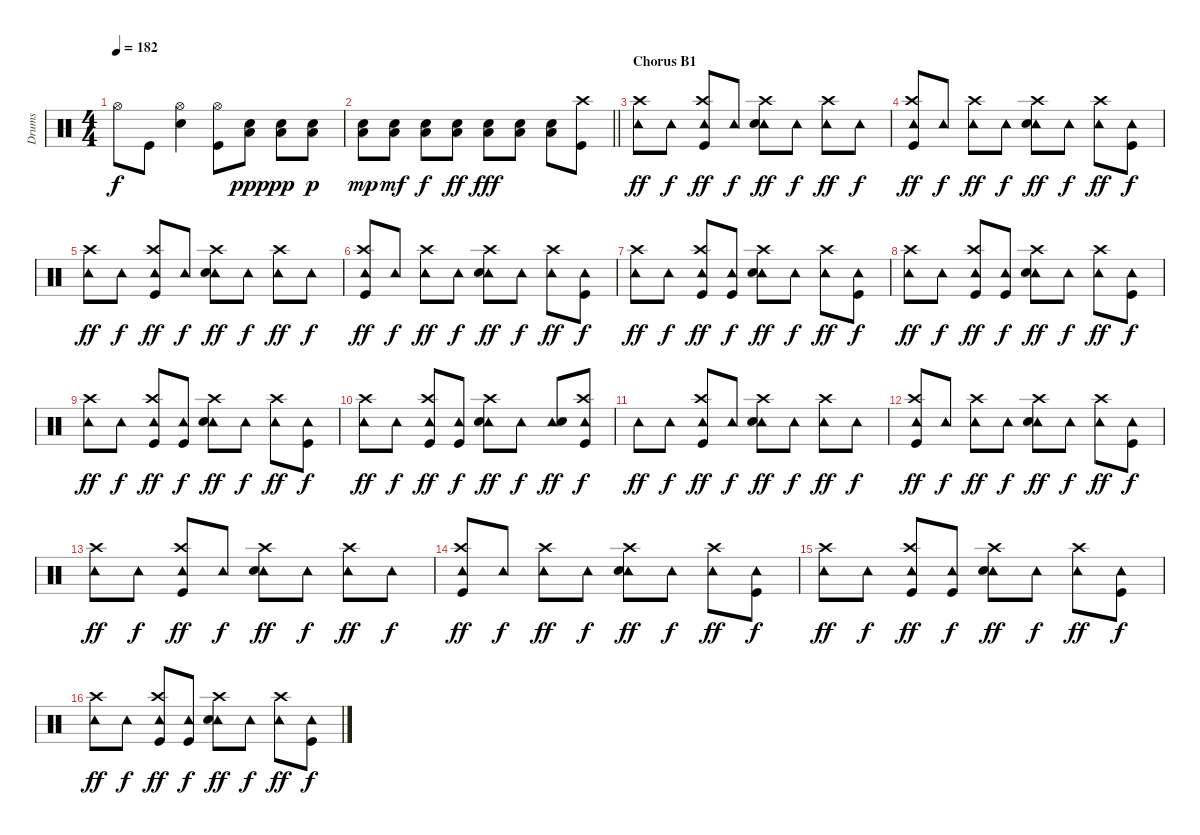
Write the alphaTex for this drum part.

\track ("Drums" "Drums") {instrument percussion}
\staff {score}
\articulation defaults
\ts (4 4)
\tempo 182
\clef neutral
\ks c "Hi-Hat (open)".8{dy f} "Kick (hit)".8
("Hi-Hat (open)" "Electric Snare (hit)").4 ("Hi-Hat (open)" "Kick (hit)").8 ("Low Floor Tom (hit)" "Electric Snare (hit)").8{dy ppp} ("Low Floor Tom (hit)" "Electric Snare (hit)").8{dy pp} ("Low Floor Tom (hit)" "Electric Snare (hit)").8{dy p} |
\barLineRight lightlight
("Low Floor Tom (hit)" "Electric Snare (hit)").8{dy mp} ("Low Floor Tom (hit)" "Electric Snare (hit)").8{dy mf} ("Low Floor Tom (hit)" "Electric Snare (hit)").8{dy f} ("Low Floor Tom (hit)" "Electric Snare (hit)").8{dy ff} ("Low Floor Tom (hit)" "Electric Snare (hit)").8{dy fff} ("Low Floor Tom (hit)" "Electric Snare (hit)").8 ("Low Floor Tom (hit)" "Electric Snare (hit)").8 ("Crash high (hit)" "Kick (hit)").8 |
\section ("" "Chorus B1")
("Tambourine (hit)" "Crash high (hit)").8{dy ff} "Tambourine (hit)".8{dy f} ("Tambourine (hit)" "Crash high (hit)" "Kick (hit)").8{dy ff} "Tambourine (hit)".8{dy f} ("Tambourine (hit)" "Crash high (hit)" "Electric Snare (hit)").8{dy ff} "Tambourine (hit)".8{dy f} ("Tambourine (hit)" "Crash high (hit)").8{dy ff} "Tambourine (hit)".8{dy f} |
("Tambourine (hit)" "Kick (hit)" "Crash high (hit)").8{dy ff} "Tambourine (hit)".8{dy f} ("Tambourine (hit)" "Crash high (hit)").8{dy ff} "Tambourine (hit)".8{dy f} ("Tambourine (hit)" "Crash high (hit)" "Electric Snare (hit)").8{dy ff} "Tambourine (hit)".8{dy f} ("Tambourine (hit)" "Crash high (hit)").8{dy ff} ("Tambourine (hit)" "Kick (hit)").8{dy f} |
("Tambourine (hit)" "Crash high (hit)").8{dy ff} "Tambourine (hit)".8{dy f} ("Tambourine (hit)" "Crash high (hit)" "Kick (hit)").8{dy ff} "Tambourine (hit)".8{dy f} ("Tambourine (hit)" "Crash high (hit)" "Electric Snare (hit)").8{dy ff} "Tambourine (hit)".8{dy f} ("Tambourine (hit)" "Crash high (hit)").8{dy ff} "Tambourine (hit)".8{dy f} |
("Tambourine (hit)" "Kick (hit)" "Crash high (hit)").8{dy ff} "Tambourine (hit)".8{dy f} ("Tambourine (hit)" "Crash high (hit)").8{dy ff} "Tambourine (hit)".8{dy f} ("Tambourine (hit)" "Crash high (hit)" "Electric Snare (hit)").8{dy ff} "Tambourine (hit)".8{dy f} ("Tambourine (hit)" "Crash high (hit)").8{dy ff} ("Tambourine (hit)" "Kick (hit)").8{dy f} |
("Tambourine (hit)" "Crash high (hit)").8{dy ff} "Tambourine (hit)".8{dy f} ("Tambourine (hit)" "Crash high (hit)" "Kick (hit)").8{dy ff} ("Tambourine (hit)" "Kick (hit)").8{dy f} ("Tambourine (hit)" "Crash high (hit)" "Electric Snare (hit)").8{dy ff} "Tambourine (hit)".8{dy f} ("Tambourine (hit)" "Crash high (hit)").8{dy ff} ("Tambourine (hit)" "Kick (hit)").8{dy f} |
("Tambourine (hit)" "Crash high (hit)").8{dy ff} "Tambourine (hit)".8{dy f} ("Tambourine (hit)" "Crash high (hit)" "Kick (hit)").8{dy ff} ("Tambourine (hit)" "Kick (hit)").8{dy f} ("Tambourine (hit)" "Crash high (hit)" "Electric Snare (hit)").8{dy ff} "Tambourine (hit)".8{dy f} ("Tambourine (hit)" "Crash high (hit)").8{dy ff} ("Tambourine (hit)" "Kick (hit)").8{dy f} |
("Tambourine (hit)" "Crash high (hit)").8{dy ff} "Tambourine (hit)".8{dy f} ("Tambourine (hit)" "Crash high (hit)" "Kick (hit)").8{dy ff} ("Tambourine (hit)" "Kick (hit)").8{dy f} ("Tambourine (hit)" "Crash high (hit)" "Electric Snare (hit)").8{dy ff} "Tambourine (hit)".8{dy f} ("Tambourine (hit)" "Crash high (hit)").8{dy ff} ("Tambourine (hit)" "Kick (hit)").8{dy f} |
("Tambourine (hit)" "Crash high (hit)").8{dy ff} "Tambourine (hit)".8{dy f} ("Tambourine (hit)" "Crash high (hit)" "Kick (hit)").8{dy ff} ("Tambourine (hit)" "Kick (hit)").8{dy f} ("Tambourine (hit)" "Crash high (hit)" "Electric Snare (hit)").8{dy ff} "Tambourine (hit)".8{dy f} ("Tambourine (hit)" "Electric Snare (hit)").8{dy ff} ("Tambourine (hit)" "Crash high (hit)" "Kick (hit)").8{dy f} |
"Tambourine (hit)".8{dy ff} "Tambourine (hit)".8{dy f} ("Tambourine (hit)" "Crash high (hit)" "Kick (hit)").8{dy ff} "Tambourine (hit)".8{dy f} ("Tambourine (hit)" "Crash high (hit)" "Electric Snare (hit)").8{dy ff} "Tambourine (hit)".8{dy f} ("Tambourine (hit)" "Crash high (hit)").8{dy ff} "Tambourine (hit)".8{dy f} |
("Tambourine (hit)" "Kick (hit)" "Crash high (hit)").8{dy ff} "Tambourine (hit)".8{dy f} ("Tambourine (hit)" "Crash high (hit)").8{dy ff} "Tambourine (hit)".8{dy f} ("Tambourine (hit)" "Crash high (hit)" "Electric Snare (hit)").8{dy ff} "Tambourine (hit)".8{dy f} ("Tambourine (hit)" "Crash high (hit)").8{dy ff} ("Tambourine (hit)" "Kick (hit)").8{dy f} |
("Tambourine (hit)" "Crash high (hit)").8{dy ff} "Tambourine (hit)".8{dy f} ("Tambourine (hit)" "Crash high (hit)" "Kick (hit)").8{dy ff} "Tambourine (hit)".8{dy f} ("Tambourine (hit)" "Crash high (hit)" "Electric Snare (hit)").8{dy ff} "Tambourine (hit)".8{dy f} ("Tambourine (hit)" "Crash high (hit)").8{dy ff} "Tambourine (hit)".8{dy f} |
("Tambourine (hit)" "Kick (hit)" "Crash high (hit)").8{dy ff} "Tambourine (hit)".8{dy f} ("Tambourine (hit)" "Crash high (hit)").8{dy ff} "Tambourine (hit)".8{dy f} ("Tambourine (hit)" "Crash high (hit)" "Electric Snare (hit)").8{dy ff} "Tambourine (hit)".8{dy f} ("Tambourine (hit)" "Crash high (hit)").8{dy ff} ("Tambourine (hit)" "Kick (hit)").8{dy f} |
("Tambourine (hit)" "Crash high (hit)").8{dy ff} "Tambourine (hit)".8{dy f} ("Tambourine (hit)" "Crash high (hit)" "Kick (hit)").8{dy ff} ("Tambourine (hit)" "Kick (hit)").8{dy f} ("Tambourine (hit)" "Crash high (hit)" "Electric Snare (hit)").8{dy ff} "Tambourine (hit)".8{dy f} ("Tambourine (hit)" "Crash high (hit)").8{dy ff} ("Tambourine (hit)" "Kick (hit)").8{dy f} |
("Tambourine (hit)" "Crash high (hit)").8{dy ff} "Tambourine (hit)".8{dy f} ("Tambourine (hit)" "Crash high (hit)" "Kick (hit)").8{dy ff} ("Tambourine (hit)" "Kick (hit)").8{dy f} ("Tambourine (hit)" "Crash high (hit)" "Electric Snare (hit)").8{dy ff} "Tambourine (hit)".8{dy f} ("Tambourine (hit)" "Crash high (hit)").8{dy ff} ("Tambourine (hit)" "Kick (hit)").8{dy f}
